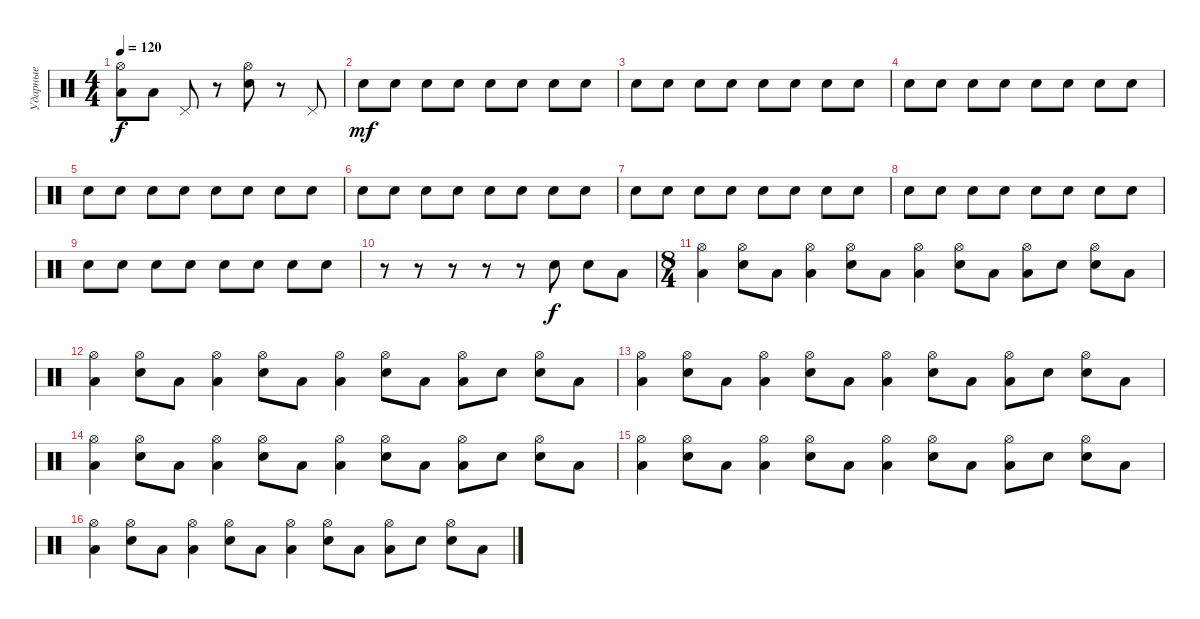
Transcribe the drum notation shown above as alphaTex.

\track ("Ударные" "Ударные") {instrument percussion}
\staff {score}
\articulation defaults
\ts (4 4)
\tempo 120
\clef neutral
\ks c
("Hi-Hat (open)" "Low Tom (hit)").8{dy f} "Low Tom (hit)".8 "Pedal Hi-Hat (hit)".8 r.8 ("Hi-Hat (open)" "Electric Snare (hit)").8 r.8 "Pedal Hi-Hat (hit)".8 |
"Electric Snare (hit)".8{dy mf} "Electric Snare (hit)".8 "Electric Snare (hit)".8 "Electric Snare (hit)".8 "Electric Snare (hit)".8 "Electric Snare (hit)".8 "Electric Snare (hit)".8 "Electric Snare (hit)".8 |
"Electric Snare (hit)".8 "Electric Snare (hit)".8 "Electric Snare (hit)".8 "Electric Snare (hit)".8 "Electric Snare (hit)".8 "Electric Snare (hit)".8 "Electric Snare (hit)".8 "Electric Snare (hit)".8 |
"Electric Snare (hit)".8 "Electric Snare (hit)".8 "Electric Snare (hit)".8 "Electric Snare (hit)".8 "Electric Snare (hit)".8 "Electric Snare (hit)".8 "Electric Snare (hit)".8 "Electric Snare (hit)".8 |
"Electric Snare (hit)".8 "Electric Snare (hit)".8 "Electric Snare (hit)".8 "Electric Snare (hit)".8 "Electric Snare (hit)".8 "Electric Snare (hit)".8 "Electric Snare (hit)".8 "Electric Snare (hit)".8 |
"Electric Snare (hit)".8 "Electric Snare (hit)".8 "Electric Snare (hit)".8 "Electric Snare (hit)".8 "Electric Snare (hit)".8 "Electric Snare (hit)".8 "Electric Snare (hit)".8 "Electric Snare (hit)".8 |
"Electric Snare (hit)".8 "Electric Snare (hit)".8 "Electric Snare (hit)".8 "Electric Snare (hit)".8 "Electric Snare (hit)".8 "Electric Snare (hit)".8 "Electric Snare (hit)".8 "Electric Snare (hit)".8 |
"Electric Snare (hit)".8 "Electric Snare (hit)".8 "Electric Snare (hit)".8 "Electric Snare (hit)".8 "Electric Snare (hit)".8 "Electric Snare (hit)".8 "Electric Snare (hit)".8 "Electric Snare (hit)".8 |
"Electric Snare (hit)".8 "Electric Snare (hit)".8 "Electric Snare (hit)".8 "Electric Snare (hit)".8 "Electric Snare (hit)".8 "Electric Snare (hit)".8 "Electric Snare (hit)".8 "Electric Snare (hit)".8 |
r.8 r.8 r.8 r.8 r.8 "Electric Snare (hit)".8{dy f} "Electric Snare (hit)".8 "Low Tom (hit)".8 |
\ts (8 4)
("Hi-Hat (open)" "Low Tom (hit)").4 ("Hi-Hat (open)" "Electric Snare (hit)").8 "Low Tom (hit)".8 ("Hi-Hat (open)" "Low Tom (hit)").4 ("Hi-Hat (open)" "Electric Snare (hit)").8 "Low Tom (hit)".8 ("Hi-Hat (open)" "Low Tom (hit)").4 ("Hi-Hat (open)" "Electric Snare (hit)").8 "Low Tom (hit)".8 ("Hi-Hat (open)" "Low Tom (hit)").8 "Electric Snare (hit)".8 ("Hi-Hat (open)" "Electric Snare (hit)").8 "Low Tom (hit)".8 |
("Hi-Hat (open)" "Low Tom (hit)").4 ("Hi-Hat (open)" "Electric Snare (hit)").8 "Low Tom (hit)".8 ("Hi-Hat (open)" "Low Tom (hit)").4 ("Hi-Hat (open)" "Electric Snare (hit)").8 "Low Tom (hit)".8 ("Hi-Hat (open)" "Low Tom (hit)").4 ("Hi-Hat (open)" "Electric Snare (hit)").8 "Low Tom (hit)".8 ("Hi-Hat (open)" "Low Tom (hit)").8 "Electric Snare (hit)".8 ("Hi-Hat (open)" "Electric Snare (hit)").8 "Low Tom (hit)".8 |
("Hi-Hat (open)" "Low Tom (hit)").4 ("Hi-Hat (open)" "Electric Snare (hit)").8 "Low Tom (hit)".8 ("Hi-Hat (open)" "Low Tom (hit)").4 ("Hi-Hat (open)" "Electric Snare (hit)").8 "Low Tom (hit)".8 ("Hi-Hat (open)" "Low Tom (hit)").4 ("Hi-Hat (open)" "Electric Snare (hit)").8 "Low Tom (hit)".8 ("Hi-Hat (open)" "Low Tom (hit)").8 "Electric Snare (hit)".8 ("Hi-Hat (open)" "Electric Snare (hit)").8 "Low Tom (hit)".8 |
("Hi-Hat (open)" "Low Tom (hit)").4 ("Hi-Hat (open)" "Electric Snare (hit)").8 "Low Tom (hit)".8 ("Hi-Hat (open)" "Low Tom (hit)").4 ("Hi-Hat (open)" "Electric Snare (hit)").8 "Low Tom (hit)".8 ("Hi-Hat (open)" "Low Tom (hit)").4 ("Hi-Hat (open)" "Electric Snare (hit)").8 "Low Tom (hit)".8 ("Hi-Hat (open)" "Low Tom (hit)").8 "Electric Snare (hit)".8 ("Hi-Hat (open)" "Electric Snare (hit)").8 "Low Tom (hit)".8 |
("Hi-Hat (open)" "Low Tom (hit)").4 ("Hi-Hat (open)" "Electric Snare (hit)").8 "Low Tom (hit)".8 ("Hi-Hat (open)" "Low Tom (hit)").4 ("Hi-Hat (open)" "Electric Snare (hit)").8 "Low Tom (hit)".8 ("Hi-Hat (open)" "Low Tom (hit)").4 ("Hi-Hat (open)" "Electric Snare (hit)").8 "Low Tom (hit)".8 ("Hi-Hat (open)" "Low Tom (hit)").8 "Electric Snare (hit)".8 ("Hi-Hat (open)" "Electric Snare (hit)").8 "Low Tom (hit)".8 |
("Hi-Hat (open)" "Low Tom (hit)").4 ("Hi-Hat (open)" "Electric Snare (hit)").8 "Low Tom (hit)".8 ("Hi-Hat (open)" "Low Tom (hit)").4 ("Hi-Hat (open)" "Electric Snare (hit)").8 "Low Tom (hit)".8 ("Hi-Hat (open)" "Low Tom (hit)").4 ("Hi-Hat (open)" "Electric Snare (hit)").8 "Low Tom (hit)".8 ("Hi-Hat (open)" "Low Tom (hit)").8 "Electric Snare (hit)".8 ("Hi-Hat (open)" "Electric Snare (hit)").8 "Low Tom (hit)".8
